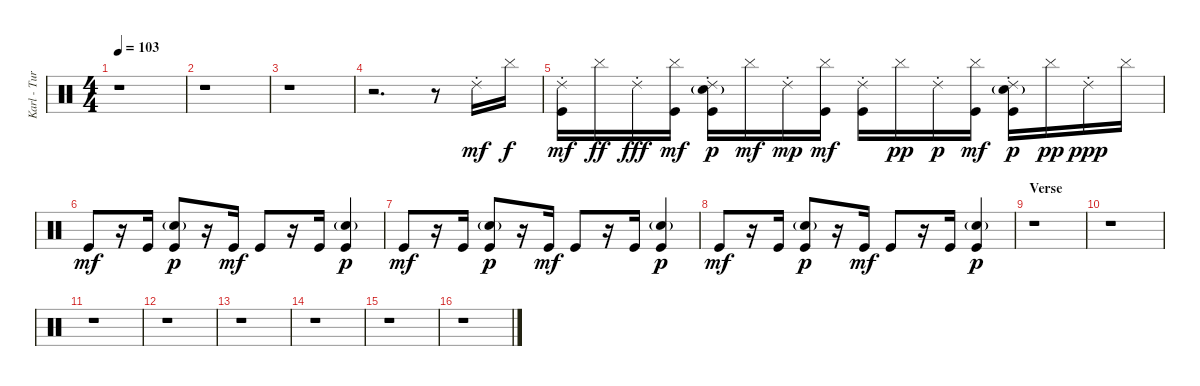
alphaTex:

\track ("Karl - Turntables" "Karl - Tur") {instrument percussion}
\staff {score}
\articulation defaults
\ts (4 4)
\tempo 103
\clef neutral
\ks c
r.1{dy p} |
r.1 |
r.1 |
r.2{d} r.8 "Ride (choke) 2".16{dy mf} "Cymbal (hit)".16{dy f} |
("Ride (choke) 2" "Kick (hit)").16{dy mf} "Cymbal (hit)".16{dy ff} "Ride (choke) 2".16{dy fff} ("Cymbal (hit)" "Kick (hit)").16{dy mf} ("Ride (choke) 2" "Snare (hit) 2"{g} "Kick (hit)").16{dy p} "Cymbal (hit)".16{dy mf} "Ride (choke) 2".16{dy mp} ("Cymbal (hit)" "Kick (hit)").16{dy mf} ("Ride (choke) 2" "Kick (hit)").16 "Cymbal (hit)".16{dy pp} "Ride (choke) 2".16{dy p} ("Cymbal (hit)" "Kick (hit)").16{dy mf} ("Ride (choke) 2" "Snare (hit) 2"{g} "Kick (hit)").16{dy p} "Cymbal (hit)".16{dy pp} "Ride (choke) 2".16{dy ppp} "Cymbal (hit)".16 |
"Kick (hit)".8{dy mf} r.16 "Kick (hit)".16 ("Snare (hit) 2"{g} "Kick (hit)").8{dy p} r.16 "Kick (hit)".16{dy mf} "Kick (hit)".8 r.16 "Kick (hit)".16 ("Snare (hit) 2"{g} "Kick (hit)").4{dy p} |
"Kick (hit)".8{dy mf} r.16 "Kick (hit)".16 ("Snare (hit) 2"{g} "Kick (hit)").8{dy p} r.16 "Kick (hit)".16{dy mf} "Kick (hit)".8 r.16 "Kick (hit)".16 ("Snare (hit) 2"{g} "Kick (hit)").4{dy p} |
"Kick (hit)".8{dy mf} r.16 "Kick (hit)".16 ("Snare (hit) 2"{g} "Kick (hit)").8{dy p} r.16 "Kick (hit)".16{dy mf} "Kick (hit)".8 r.16 "Kick (hit)".16 ("Snare (hit) 2"{g} "Kick (hit)").4{dy p} |
\section ("" "Verse")
r.1 |
r.1 |
r.1 |
r.1 |
r.1 |
r.1 |
r.1 |
r.1
